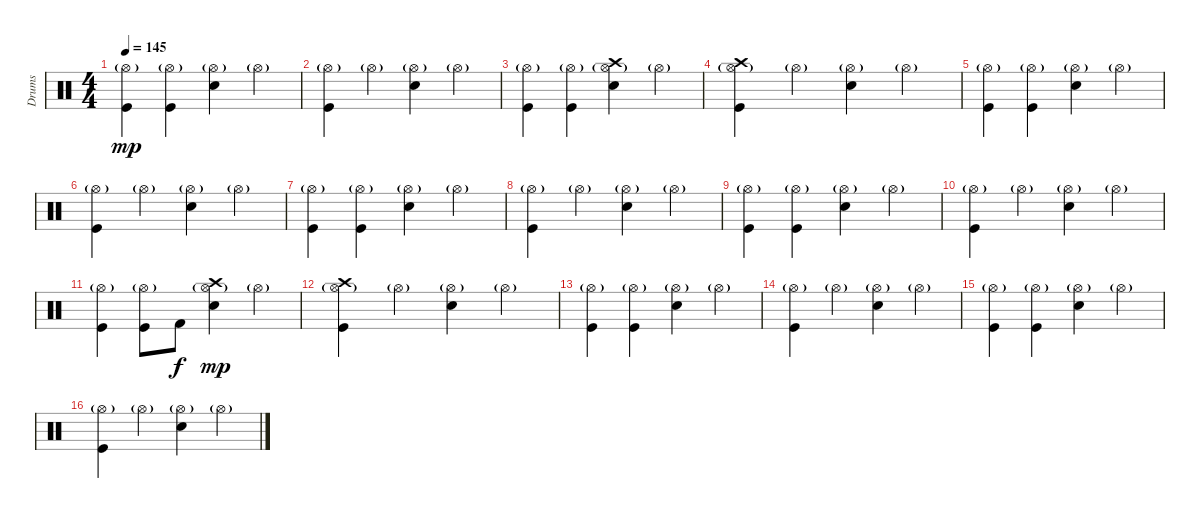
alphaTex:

\track ("Drums" "Drums") {instrument percussion}
\staff {score}
\articulation defaults
\ts (4 4)
\tempo 145
\clef neutral
\ks c
("Hi-Hat (open)"{g} "Kick (hit)").4{dy mp} ("Hi-Hat (open)"{g} "Kick (hit)").4 ("Hi-Hat (open)"{g} "Electric Snare (hit)").4 "Hi-Hat (open)"{g}.4 |
("Hi-Hat (open)"{g} "Kick (hit)").4 "Hi-Hat (open)"{g}.4 ("Hi-Hat (open)"{g} "Electric Snare (hit)").4 "Hi-Hat (open)"{g}.4 |
("Hi-Hat (open)"{g} "Kick (hit)").4 ("Hi-Hat (open)"{g} "Kick (hit)").4 ("Hi-Hat (open)"{g} "Crash high (hit)" "Electric Snare (hit)").4 "Hi-Hat (open)"{g}.4 |
("Hi-Hat (open)"{g} "Crash high (hit)" "Kick (hit)").4 "Hi-Hat (open)"{g}.4 ("Hi-Hat (open)"{g} "Electric Snare (hit)").4 "Hi-Hat (open)"{g}.4 |
("Hi-Hat (open)"{g} "Kick (hit)").4 ("Hi-Hat (open)"{g} "Kick (hit)").4 ("Hi-Hat (open)"{g} "Electric Snare (hit)").4 "Hi-Hat (open)"{g}.4 |
("Hi-Hat (open)"{g} "Kick (hit)").4 "Hi-Hat (open)"{g}.4 ("Hi-Hat (open)"{g} "Electric Snare (hit)").4 "Hi-Hat (open)"{g}.4 |
("Hi-Hat (open)"{g} "Kick (hit)").4 ("Hi-Hat (open)"{g} "Kick (hit)").4 ("Hi-Hat (open)"{g} "Electric Snare (hit)").4 "Hi-Hat (open)"{g}.4 |
("Hi-Hat (open)"{g} "Kick (hit)").4 "Hi-Hat (open)"{g}.4 ("Hi-Hat (open)"{g} "Electric Snare (hit)").4 "Hi-Hat (open)"{g}.4 |
("Hi-Hat (open)"{g} "Kick (hit)").4 ("Hi-Hat (open)"{g} "Kick (hit)").4 ("Hi-Hat (open)"{g} "Electric Snare (hit)").4 "Hi-Hat (open)"{g}.4 |
("Hi-Hat (open)"{g} "Kick (hit)").4 "Hi-Hat (open)"{g}.4 ("Hi-Hat (open)"{g} "Electric Snare (hit)").4 "Hi-Hat (open)"{g}.4 |
("Hi-Hat (open)"{g} "Kick (hit)").4 ("Hi-Hat (open)"{g} "Kick (hit)").8 "Kick (hit) 2".8{dy f} ("Hi-Hat (open)"{g} "Crash high (hit)" "Electric Snare (hit)").4{dy mp} "Hi-Hat (open)"{g}.4 |
("Hi-Hat (open)"{g} "Crash high (hit)" "Kick (hit)").4 "Hi-Hat (open)"{g}.4 ("Hi-Hat (open)"{g} "Electric Snare (hit)").4 "Hi-Hat (open)"{g}.4 |
("Hi-Hat (open)"{g} "Kick (hit)").4 ("Hi-Hat (open)"{g} "Kick (hit)").4 ("Hi-Hat (open)"{g} "Electric Snare (hit)").4 "Hi-Hat (open)"{g}.4 |
("Hi-Hat (open)"{g} "Kick (hit)").4 "Hi-Hat (open)"{g}.4 ("Hi-Hat (open)"{g} "Electric Snare (hit)").4 "Hi-Hat (open)"{g}.4 |
("Hi-Hat (open)"{g} "Kick (hit)").4 ("Hi-Hat (open)"{g} "Kick (hit)").4 ("Hi-Hat (open)"{g} "Electric Snare (hit)").4 "Hi-Hat (open)"{g}.4 |
("Hi-Hat (open)"{g} "Kick (hit)").4 "Hi-Hat (open)"{g}.4 ("Hi-Hat (open)"{g} "Electric Snare (hit)").4 "Hi-Hat (open)"{g}.4
